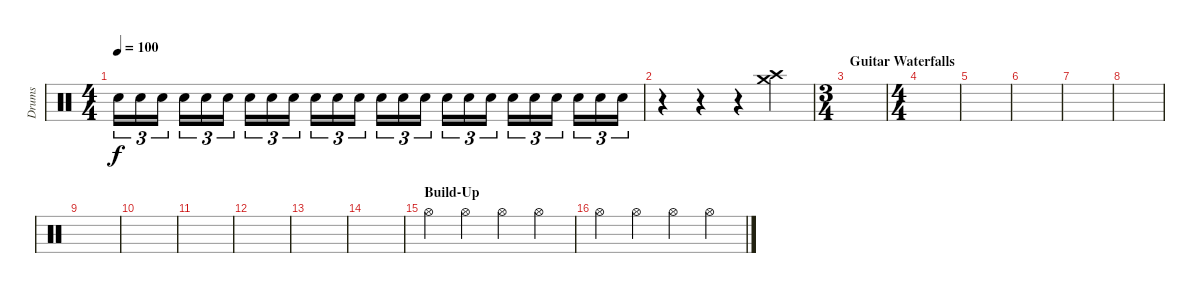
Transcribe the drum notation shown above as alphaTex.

\track ("Drums" "Drums") {instrument percussion}
\staff {score}
\articulation defaults
\ts (4 4)
\tempo 100
\clef neutral
\ks c "Electric Snare (hit)".16{tu (3 2) dy f} "Electric Snare (hit)".16{tu (3 2)} "Electric Snare (hit)".16{tu (3 2)} "Electric Snare (hit)".16{tu (3 2)} "Electric Snare (hit)".16{tu (3 2)} "Electric Snare (hit)".16{tu (3 2)} "Electric Snare (hit)".16{tu (3 2)} "Electric Snare (hit)".16{tu (3 2)} "Electric Snare (hit)".16{tu (3 2)} "Electric Snare (hit)".16{tu (3 2)} "Electric Snare (hit)".16{tu (3 2)} "Electric Snare (hit)".16{tu (3 2)} "Electric Snare (hit)".16{tu (3 2)} "Electric Snare (hit)".16{tu (3 2)} "Electric Snare (hit)".16{tu (3 2)} "Electric Snare (hit)".16{tu (3 2)} "Electric Snare (hit)".16{tu (3 2)} "Electric Snare (hit)".16{tu (3 2)} "Electric Snare (hit)".16{tu (3 2)} "Electric Snare (hit)".16{tu (3 2)} "Electric Snare (hit)".16{tu (3 2)} "Electric Snare (hit)".16{tu (3 2)} "Electric Snare (hit)".16{tu (3 2)} "Electric Snare (hit)".16{tu (3 2)}
|
r.4 r.4 r.4 ("Crash high (hit)" "Crash medium (hit)").4 |
\ts (3 4)
\section ("" "Guitar Waterfalls")
|
\ts (4 4)
|
|
|
|
|
|
|
|
|
|
|
\section ("" "Build-Up")
"Hi-Hat (open)".4 "Hi-Hat (open)".4 "Hi-Hat (open)".4 "Hi-Hat (open)".4 |
"Hi-Hat (open)".4 "Hi-Hat (open)".4 "Hi-Hat (open)".4 "Hi-Hat (open)".4
